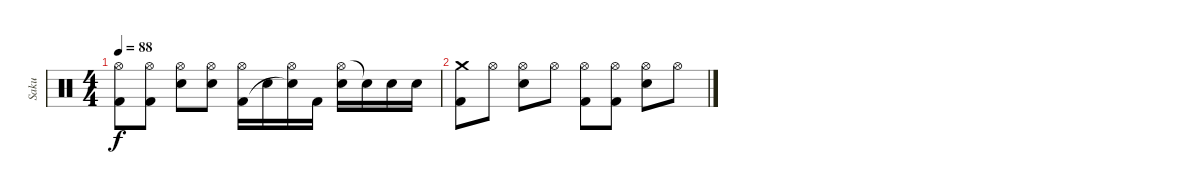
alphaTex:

\track ("Saku" "Saku") {instrument percussion}
\staff {score}
\articulation defaults
\ts (4 4)
\tempo 88
\clef neutral
\ks c
("Hi-Hat (open)" "Kick (hit) 2").8{dy f} ("Hi-Hat (open)" "Kick (hit) 2").8 ("Hi-Hat (open)" "Electric Snare (hit)").8 ("Hi-Hat (open)" "Electric Snare (hit)").8 ("Hi-Hat (open)" "Kick (hit) 2").16 "Electric Snare (hit)".16 ("Hi-Hat (open)" "Snare (hit)"{t}).16 "Kick (hit) 2".16 ("Hi-Hat (open)" "Electric Snare (hit)").16 "Electric Snare (hit)"{t}.16 "Electric Snare (hit)".16 "Electric Snare (hit)".16 |
("Crash medium (hit)" "Kick (hit) 2").8 "Hi-Hat (open)".8 ("Hi-Hat (open)" "Electric Snare (hit)").8 "Hi-Hat (open)".8 ("Hi-Hat (open)" "Kick (hit) 2").8 ("Hi-Hat (open)" "Kick (hit) 2").8 ("Hi-Hat (open)" "Electric Snare (hit)").8 "Hi-Hat (open)".8
